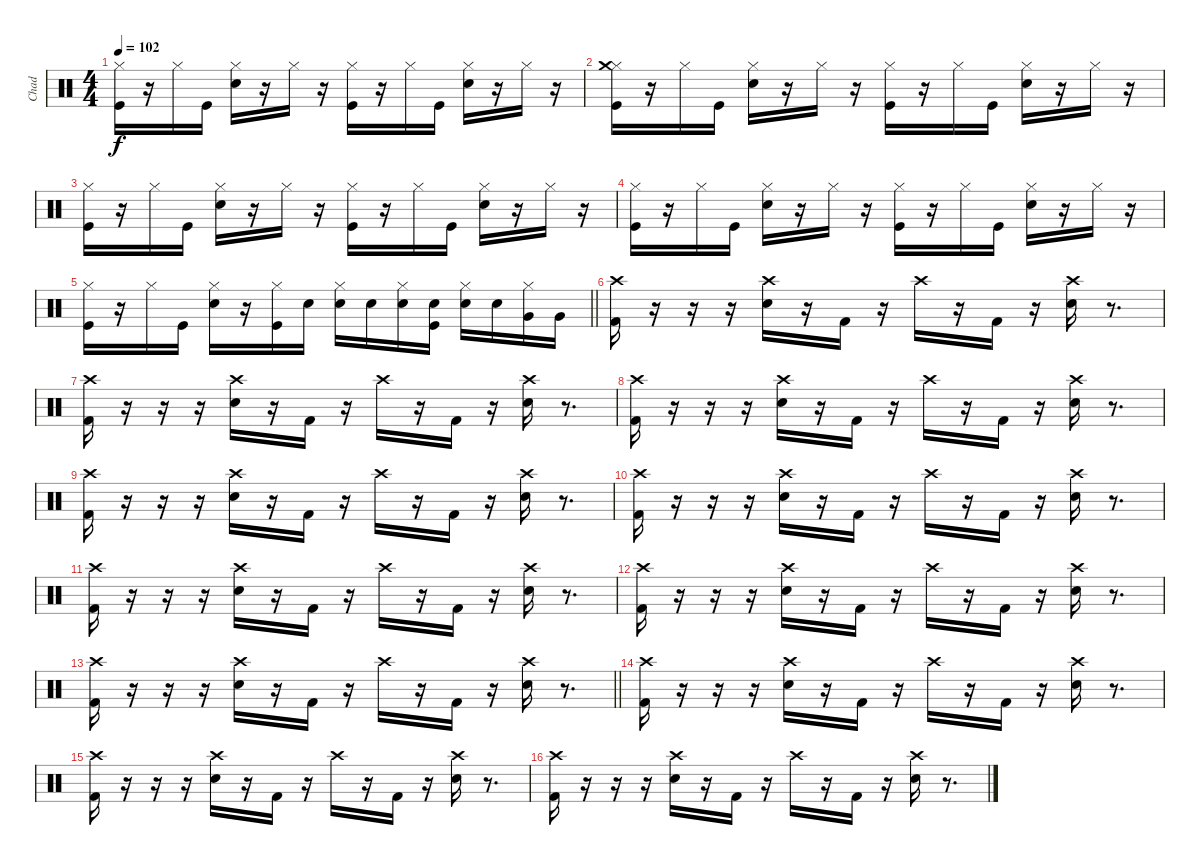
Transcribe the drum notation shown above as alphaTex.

\track ("Chad" "Chad") {instrument percussion}
\staff {score}
\articulation defaults
\ts (4 4)
\tempo 102
\clef neutral
\ks c
("Hi-Hat (closed)" "Kick (hit)").16{dy f} r.16 "Hi-Hat (closed)".16 "Kick (hit)".16 ("Hi-Hat (closed)" "Snare (hit) 2").16 r.16 "Hi-Hat (closed)".16 r.16 ("Hi-Hat (closed)" "Kick (hit)").16 r.16 "Hi-Hat (closed)".16 "Kick (hit)".16 ("Hi-Hat (closed)" "Snare (hit) 2").16 r.16 "Hi-Hat (closed)".16 r.16 |
("Hi-Hat (closed)" "Crash medium (hit)" "Kick (hit)").16 r.16 "Hi-Hat (closed)".16 "Kick (hit)".16 ("Hi-Hat (closed)" "Snare (hit) 2").16 r.16 "Hi-Hat (closed)".16 r.16 ("Hi-Hat (closed)" "Kick (hit)").16 r.16 "Hi-Hat (closed)".16 "Kick (hit)".16 ("Hi-Hat (closed)" "Snare (hit) 2").16 r.16 "Hi-Hat (closed)".16 r.16 |
("Hi-Hat (closed)" "Kick (hit)").16 r.16 "Hi-Hat (closed)".16 "Kick (hit)".16 ("Hi-Hat (closed)" "Snare (hit) 2").16 r.16 "Hi-Hat (closed)".16 r.16 ("Hi-Hat (closed)" "Kick (hit)").16 r.16 "Hi-Hat (closed)".16 "Kick (hit)".16 ("Hi-Hat (closed)" "Snare (hit) 2").16 r.16 "Hi-Hat (closed)".16 r.16 |
("Hi-Hat (closed)" "Kick (hit)").16 r.16 "Hi-Hat (closed)".16 "Kick (hit)".16 ("Hi-Hat (closed)" "Snare (hit) 2").16 r.16 "Hi-Hat (closed)".16 r.16 ("Hi-Hat (closed)" "Kick (hit)").16 r.16 "Hi-Hat (closed)".16 "Kick (hit)".16 ("Hi-Hat (closed)" "Snare (hit) 2").16 r.16 "Hi-Hat (closed)".16 r.16 |
\barLineRight lightlight
("Hi-Hat (closed)" "Kick (hit)").16 r.16 "Hi-Hat (closed)".16 "Kick (hit)".16 ("Hi-Hat (closed)" "Snare (hit) 2").16 r.16 ("Hi-Hat (closed)" "Kick (hit)").16 "Snare (hit) 2".16 ("Hi-Hat (closed)" "Snare (hit) 2").16 "Snare (hit) 2".16 ("Hi-Hat (closed)" "Snare (hit) 2").16 ("Snare (hit) 2" "Kick (hit)").16 ("Hi-Hat (closed)" "Snare (hit) 2").16 "Snare (hit) 2".16 ("Hi-Hat (closed)" "Very Low Tom (hit)").16 "Very Low Tom (hit)".16 |
("Crash high (hit)" "Kick (hit) 2").16 r.16 r.16 r.16 ("Crash high (hit)" "Electric Snare (hit)").16 r.16 "Kick (hit) 2".16 r.16 "Crash high (hit)".16 r.16 "Kick (hit) 2".16 r.16 ("Crash high (hit)" "Electric Snare (hit)").16 r.8{d} |
("Crash high (hit)" "Kick (hit) 2").16 r.16 r.16 r.16 ("Crash high (hit)" "Electric Snare (hit)").16 r.16 "Kick (hit) 2".16 r.16 "Crash high (hit)".16 r.16 "Kick (hit) 2".16 r.16 ("Crash high (hit)" "Electric Snare (hit)").16 r.8{d} |
("Crash high (hit)" "Kick (hit) 2").16 r.16 r.16 r.16 ("Crash high (hit)" "Electric Snare (hit)").16 r.16 "Kick (hit) 2".16 r.16 "Crash high (hit)".16 r.16 "Kick (hit) 2".16 r.16 ("Crash high (hit)" "Electric Snare (hit)").16 r.8{d} |
("Crash high (hit)" "Kick (hit) 2").16 r.16 r.16 r.16 ("Crash high (hit)" "Electric Snare (hit)").16 r.16 "Kick (hit) 2".16 r.16 "Crash high (hit)".16 r.16 "Kick (hit) 2".16 r.16 ("Crash high (hit)" "Electric Snare (hit)").16 r.8{d} |
("Crash high (hit)" "Kick (hit) 2").16 r.16 r.16 r.16 ("Crash high (hit)" "Electric Snare (hit)").16 r.16 "Kick (hit) 2".16 r.16 "Crash high (hit)".16 r.16 "Kick (hit) 2".16 r.16 ("Crash high (hit)" "Electric Snare (hit)").16 r.8{d} |
("Crash high (hit)" "Kick (hit) 2").16 r.16 r.16 r.16 ("Crash high (hit)" "Electric Snare (hit)").16 r.16 "Kick (hit) 2".16 r.16 "Crash high (hit)".16 r.16 "Kick (hit) 2".16 r.16 ("Crash high (hit)" "Electric Snare (hit)").16 r.8{d} |
("Crash high (hit)" "Kick (hit) 2").16 r.16 r.16 r.16 ("Crash high (hit)" "Electric Snare (hit)").16 r.16 "Kick (hit) 2".16 r.16 "Crash high (hit)".16 r.16 "Kick (hit) 2".16 r.16 ("Crash high (hit)" "Electric Snare (hit)").16 r.8{d} |
\barLineRight lightlight
("Crash high (hit)" "Kick (hit) 2").16 r.16 r.16 r.16 ("Crash high (hit)" "Electric Snare (hit)").16 r.16 "Kick (hit) 2".16 r.16 "Crash high (hit)".16 r.16 "Kick (hit) 2".16 r.16 ("Crash high (hit)" "Electric Snare (hit)").16 r.8{d} |
("Crash high (hit)" "Kick (hit) 2").16 r.16 r.16 r.16 ("Crash high (hit)" "Electric Snare (hit)").16 r.16 "Kick (hit) 2".16 r.16 "Crash high (hit)".16 r.16 "Kick (hit) 2".16 r.16 ("Crash high (hit)" "Electric Snare (hit)").16 r.8{d} |
("Crash high (hit)" "Kick (hit) 2").16 r.16 r.16 r.16 ("Crash high (hit)" "Electric Snare (hit)").16 r.16 "Kick (hit) 2".16 r.16 "Crash high (hit)".16 r.16 "Kick (hit) 2".16 r.16 ("Crash high (hit)" "Electric Snare (hit)").16 r.8{d} |
("Crash high (hit)" "Kick (hit) 2").16 r.16 r.16 r.16 ("Crash high (hit)" "Electric Snare (hit)").16 r.16 "Kick (hit) 2".16 r.16 "Crash high (hit)".16 r.16 "Kick (hit) 2".16 r.16 ("Crash high (hit)" "Electric Snare (hit)").16 r.8{d}
